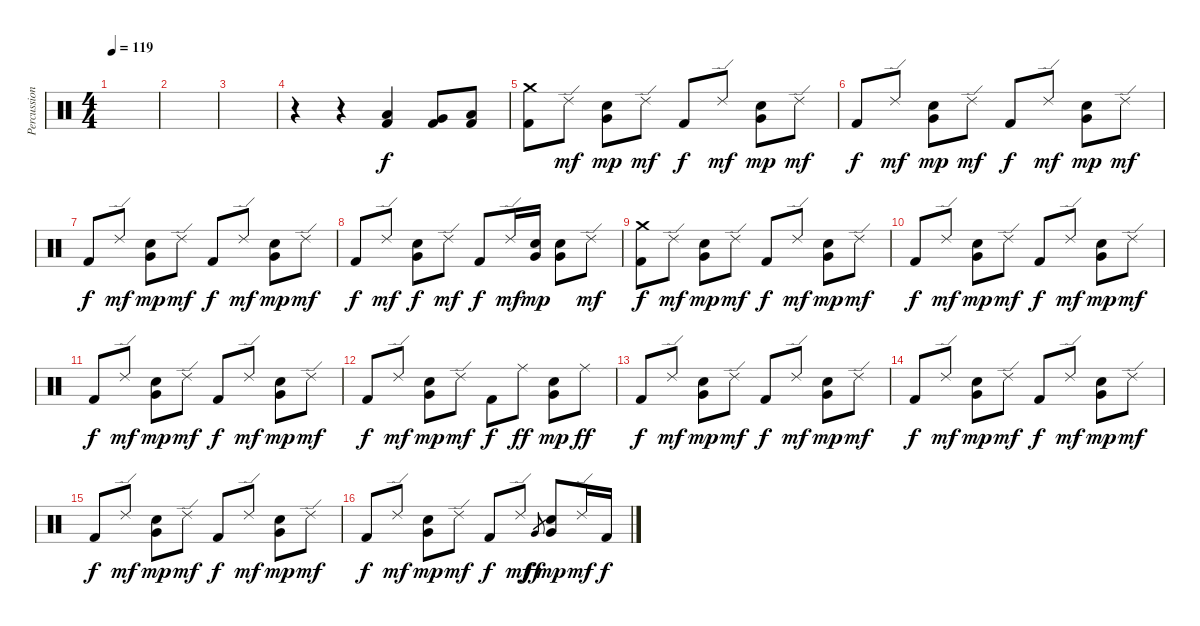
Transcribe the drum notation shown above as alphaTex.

\track ("Percussion" "Percussion") {instrument percussion}
\staff {score}
\articulation defaults
\ts (4 4)
\tempo 119
\clef neutral
\ks c
|
|
|
r.4 r.4 ("Low Tom (hit)" "Kick (hit) 2").4 ("Very Low Tom (hit)" "Kick (hit) 2").8 ("Low Floor Tom (hit)" "Kick (hit) 2").8 |
("Crash medium (hit)" "Kick (hit) 2").8 "Ride (edge) 2".8{dy mf} ("Very Low Tom (hit)" "Snare (hit) 2").8{dy mp} "Ride (edge) 2".8{dy mf} "Kick (hit) 2".8{dy f} "Ride (edge) 2".8{dy mf} ("Very Low Tom (hit)" "Snare (hit) 2").8{dy mp} "Ride (edge) 2".8{dy mf} |
"Kick (hit) 2".8{dy f} "Ride (edge) 2".8{dy mf} ("Very Low Tom (hit)" "Snare (hit) 2").8{dy mp} "Ride (edge) 2".8{dy mf} "Kick (hit) 2".8{dy f} "Ride (edge) 2".8{dy mf} ("Very Low Tom (hit)" "Snare (hit) 2").8{dy mp} "Ride (edge) 2".8{dy mf} |
"Kick (hit) 2".8{dy f} "Ride (edge) 2".8{dy mf} ("Very Low Tom (hit)" "Snare (hit) 2").8{dy mp} "Ride (edge) 2".8{dy mf} "Kick (hit) 2".8{dy f} "Ride (edge) 2".8{dy mf} ("Very Low Tom (hit)" "Snare (hit) 2").8{dy mp} "Ride (edge) 2".8{dy mf} |
"Kick (hit) 2".8{dy f} "Ride (edge) 2".8{dy mf} ("Very Low Tom (hit)" "Snare (hit) 2").8{dy f} "Ride (edge) 2".8{dy mf} "Kick (hit) 2".8{dy f} "Ride (edge) 2".16{dy mf} ("Very Low Tom (hit)" "Snare (hit) 2").16{dy mp} ("Very Low Tom (hit)" "Snare (hit) 2").8 "Ride (edge) 2".8{dy mf} |
("Crash medium (hit)" "Kick (hit) 2").8{dy f} "Ride (edge) 2".8{dy mf} ("Very Low Tom (hit)" "Snare (hit) 2").8{dy mp} "Ride (edge) 2".8{dy mf} "Kick (hit) 2".8{dy f} "Ride (edge) 2".8{dy mf} ("Very Low Tom (hit)" "Snare (hit) 2").8{dy mp} "Ride (edge) 2".8{dy mf} |
"Kick (hit) 2".8{dy f} "Ride (edge) 2".8{dy mf} ("Very Low Tom (hit)" "Snare (hit) 2").8{dy mp} "Ride (edge) 2".8{dy mf} "Kick (hit) 2".8{dy f} "Ride (edge) 2".8{dy mf} ("Very Low Tom (hit)" "Snare (hit) 2").8{dy mp} "Ride (edge) 2".8{dy mf} |
"Kick (hit) 2".8{dy f} "Ride (edge) 2".8{dy mf} ("Very Low Tom (hit)" "Snare (hit) 2").8{dy mp} "Ride (edge) 2".8{dy mf} "Kick (hit) 2".8{dy f} "Ride (edge) 2".8{dy mf} ("Very Low Tom (hit)" "Snare (hit) 2").8{dy mp} "Ride (edge) 2".8{dy mf} |
"Kick (hit) 2".8{dy f} "Ride (edge) 2".8{dy mf} ("Very Low Tom (hit)" "Snare (hit) 2").8{dy mp} "Ride (edge) 2".8{dy mf} "Kick (hit) 2".8{dy f} "Ride (middle)".8{dy ff} ("Very Low Tom (hit)" "Snare (hit) 2").8{dy mp} "Ride (middle)".8{dy ff} |
"Kick (hit) 2".8{dy f} "Ride (edge) 2".8{dy mf} ("Very Low Tom (hit)" "Snare (hit) 2").8{dy mp} "Ride (edge) 2".8{dy mf} "Kick (hit) 2".8{dy f} "Ride (edge) 2".8{dy mf} ("Very Low Tom (hit)" "Snare (hit) 2").8{dy mp} "Ride (edge) 2".8{dy mf} |
"Kick (hit) 2".8{dy f} "Ride (edge) 2".8{dy mf} ("Very Low Tom (hit)" "Snare (hit) 2").8{dy mp} "Ride (edge) 2".8{dy mf} "Kick (hit) 2".8{dy f} "Ride (edge) 2".8{dy mf} ("Very Low Tom (hit)" "Snare (hit) 2").8{dy mp} "Ride (edge) 2".8{dy mf} |
"Kick (hit) 2".8{dy f} "Ride (edge) 2".8{dy mf} ("Very Low Tom (hit)" "Snare (hit) 2").8{dy mp} "Ride (edge) 2".8{dy mf} "Kick (hit) 2".8{dy f} "Ride (edge) 2".8{dy mf} ("Very Low Tom (hit)" "Snare (hit) 2").8{dy mp} "Ride (edge) 2".8{dy mf} |
"Kick (hit) 2".8{dy f} "Ride (edge) 2".8{dy mf} ("Very Low Tom (hit)" "Snare (hit) 2").8{dy mp} "Ride (edge) 2".8{dy mf} "Kick (hit) 2".8{dy f} "Ride (edge) 2".8{dy mf} "Very Low Tom (hit)".8{gr dy ff} ("Very Low Tom (hit)" "Snare (hit) 2").8{dy mp} "Ride (edge) 2".16{dy mf} "Kick (hit) 2".16{dy f}
